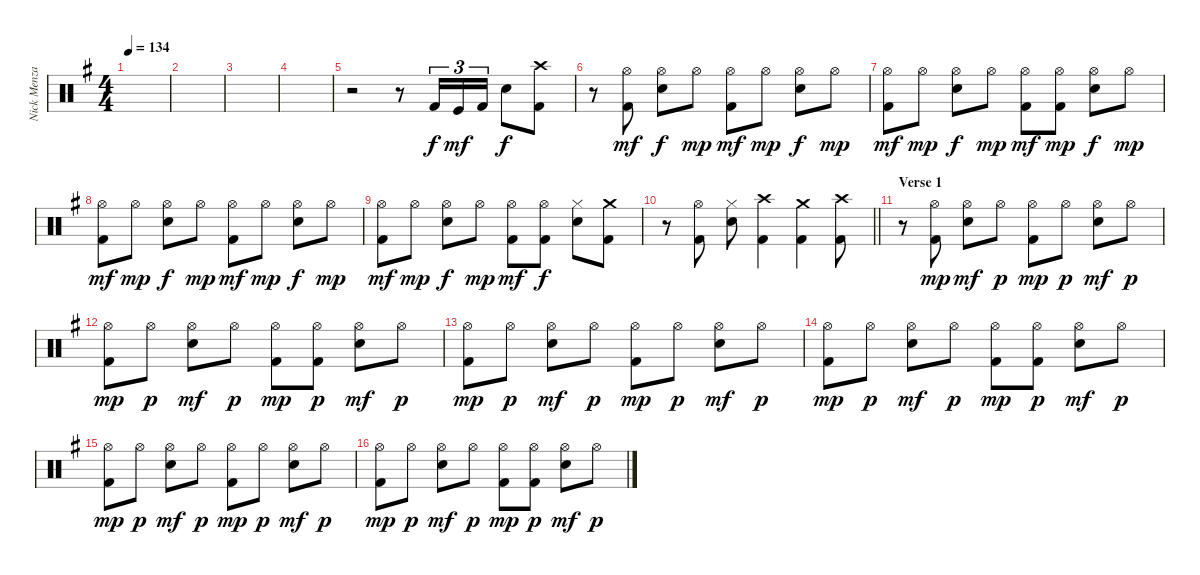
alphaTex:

\track ("Nick Menza" "Nick Menza") {instrument percussion}
\staff {score}
\articulation defaults
\ts (4 4)
\tempo 134
\clef neutral
\ks eminor
|
|
|
|
r.2 r.8 "Kick (hit) 2".16{tu (3 2)} "Kick (hit)".16{tu (3 2) dy mf} "Kick (hit) 2".16{tu (3 2)} "Snare (hit) 2".8{dy f} ("Crash high (hit)" "Kick (hit) 2").8 |
r.8 ("Hi-Hat (open)" "Kick (hit) 2").8{dy mf} ("Hi-Hat (open)" "Snare (hit) 2").8{dy f} "Hi-Hat (open)".8{dy mp} ("Hi-Hat (open)" "Kick (hit) 2").8{dy mf} "Hi-Hat (open)".8{dy mp} ("Hi-Hat (open)" "Snare (hit) 2").8{dy f} "Hi-Hat (open)".8{dy mp} |
("Hi-Hat (open)" "Kick (hit) 2").8{dy mf} "Hi-Hat (open)".8{dy mp} ("Hi-Hat (open)" "Snare (hit) 2").8{dy f} "Hi-Hat (open)".8{dy mp} ("Hi-Hat (open)" "Kick (hit) 2").8{dy mf} ("Hi-Hat (open)" "Kick (hit) 2").8{dy mp} ("Hi-Hat (open)" "Snare (hit) 2").8{dy f} "Hi-Hat (open)".8{dy mp} |
("Hi-Hat (open)" "Kick (hit) 2").8{dy mf} "Hi-Hat (open)".8{dy mp} ("Hi-Hat (open)" "Snare (hit) 2").8{dy f} "Hi-Hat (open)".8{dy mp} ("Hi-Hat (open)" "Kick (hit) 2").8{dy mf} "Hi-Hat (open)".8{dy mp} ("Hi-Hat (open)" "Snare (hit) 2").8{dy f} "Hi-Hat (open)".8{dy mp} |
("Hi-Hat (open)" "Kick (hit) 2").8{dy mf} "Hi-Hat (open)".8{dy mp} ("Hi-Hat (open)" "Snare (hit) 2").8{dy f} "Hi-Hat (open)".8{dy mp} ("Hi-Hat (open)" "Kick (hit) 2").8{dy mf} ("Hi-Hat (open)" "Kick (hit) 2").8{dy f} ("Hi-Hat (closed)" "Snare (hit) 2").8 ("Crash medium (hit)" "Kick (hit) 2").8 |
\barLineRight lightlight
r.8 ("Hi-Hat (open)" "Kick (hit) 2").8 ("Hi-Hat (closed)" "Snare (hit) 2").8 ("Crash high (hit)" "Kick (hit) 2").4 ("Crash medium (hit)" "Kick (hit) 2").4 ("Crash high (hit)" "Kick (hit) 2").8 |
\section ("" "Verse 1")
r.8 ("Hi-Hat (open)" "Kick (hit) 2").8{dy mp} ("Hi-Hat (open)" "Snare (hit) 2").8{dy mf} "Hi-Hat (open)".8{dy p} ("Hi-Hat (open)" "Kick (hit) 2").8{dy mp} "Hi-Hat (open)".8{dy p} ("Hi-Hat (open)" "Snare (hit) 2").8{dy mf} "Hi-Hat (open)".8{dy p} |
("Hi-Hat (open)" "Kick (hit) 2").8{dy mp} "Hi-Hat (open)".8{dy p} ("Hi-Hat (open)" "Snare (hit) 2").8{dy mf} "Hi-Hat (open)".8{dy p} ("Hi-Hat (open)" "Kick (hit) 2").8{dy mp} ("Hi-Hat (open)" "Kick (hit) 2").8{dy p} ("Hi-Hat (open)" "Snare (hit) 2").8{dy mf} "Hi-Hat (open)".8{dy p} |
("Hi-Hat (open)" "Kick (hit) 2").8{dy mp} "Hi-Hat (open)".8{dy p} ("Hi-Hat (open)" "Snare (hit) 2").8{dy mf} "Hi-Hat (open)".8{dy p} ("Hi-Hat (open)" "Kick (hit) 2").8{dy mp} "Hi-Hat (open)".8{dy p} ("Hi-Hat (open)" "Snare (hit) 2").8{dy mf} "Hi-Hat (open)".8{dy p} |
("Hi-Hat (open)" "Kick (hit) 2").8{dy mp} "Hi-Hat (open)".8{dy p} ("Hi-Hat (open)" "Snare (hit) 2").8{dy mf} "Hi-Hat (open)".8{dy p} ("Hi-Hat (open)" "Kick (hit) 2").8{dy mp} ("Hi-Hat (open)" "Kick (hit) 2").8{dy p} ("Hi-Hat (open)" "Snare (hit) 2").8{dy mf} "Hi-Hat (open)".8{dy p} |
("Hi-Hat (open)" "Kick (hit) 2").8{dy mp} "Hi-Hat (open)".8{dy p} ("Hi-Hat (open)" "Snare (hit) 2").8{dy mf} "Hi-Hat (open)".8{dy p} ("Hi-Hat (open)" "Kick (hit) 2").8{dy mp} "Hi-Hat (open)".8{dy p} ("Hi-Hat (open)" "Snare (hit) 2").8{dy mf} "Hi-Hat (open)".8{dy p} |
("Hi-Hat (open)" "Kick (hit) 2").8{dy mp} "Hi-Hat (open)".8{dy p} ("Hi-Hat (open)" "Snare (hit) 2").8{dy mf} "Hi-Hat (open)".8{dy p} ("Hi-Hat (open)" "Kick (hit) 2").8{dy mp} ("Hi-Hat (open)" "Kick (hit) 2").8{dy p} ("Hi-Hat (open)" "Snare (hit) 2").8{dy mf} "Hi-Hat (open)".8{dy p}
